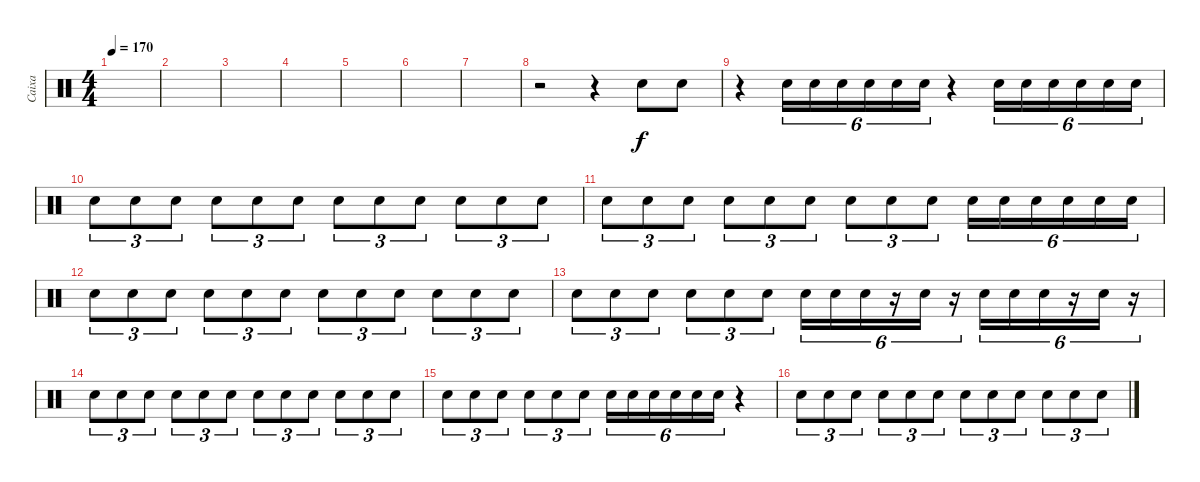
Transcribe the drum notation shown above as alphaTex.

\track ("Caixa" "Caixa") {instrument percussion}
\staff {score}
\articulation defaults
\ts (4 4)
\tempo 170
\clef neutral
\ks c
|
|
|
|
|
|
|
r.2 r.4 "Electric Snare (hit)".8 "Electric Snare (hit)".8 |
r.4 "Electric Snare (hit)".16{tu (6 4)} "Electric Snare (hit)".16{tu (6 4)} "Electric Snare (hit)".16{tu (6 4)} "Electric Snare (hit)".16{tu (6 4)} "Electric Snare (hit)".16{tu (6 4)} "Electric Snare (hit)".16{tu (6 4)} r.4 "Electric Snare (hit)".16{tu (6 4)} "Electric Snare (hit)".16{tu (6 4)} "Electric Snare (hit)".16{tu (6 4)} "Electric Snare (hit)".16{tu (6 4)} "Electric Snare (hit)".16{tu (6 4)} "Electric Snare (hit)".16{tu (6 4)} |
"Electric Snare (hit)".8{tu (3 2)} "Electric Snare (hit)".8{tu (3 2)} "Electric Snare (hit)".8{tu (3 2)} "Electric Snare (hit)".8{tu (3 2)} "Electric Snare (hit)".8{tu (3 2)} "Electric Snare (hit)".8{tu (3 2)} "Electric Snare (hit)".8{tu (3 2)} "Electric Snare (hit)".8{tu (3 2)} "Electric Snare (hit)".8{tu (3 2)} "Electric Snare (hit)".8{tu (3 2)} "Electric Snare (hit)".8{tu (3 2)} "Electric Snare (hit)".8{tu (3 2)} |
"Electric Snare (hit)".8{tu (3 2)} "Electric Snare (hit)".8{tu (3 2)} "Electric Snare (hit)".8{tu (3 2)} "Electric Snare (hit)".8{tu (3 2)} "Electric Snare (hit)".8{tu (3 2)} "Electric Snare (hit)".8{tu (3 2)} "Electric Snare (hit)".8{tu (3 2)} "Electric Snare (hit)".8{tu (3 2)} "Electric Snare (hit)".8{tu (3 2)} "Electric Snare (hit)".16{tu (6 4)} "Electric Snare (hit)".16{tu (6 4)} "Electric Snare (hit)".16{tu (6 4)} "Electric Snare (hit)".16{tu (6 4)} "Electric Snare (hit)".16{tu (6 4)} "Electric Snare (hit)".16{tu (6 4)} |
"Electric Snare (hit)".8{tu (3 2)} "Electric Snare (hit)".8{tu (3 2)} "Electric Snare (hit)".8{tu (3 2)} "Electric Snare (hit)".8{tu (3 2)} "Electric Snare (hit)".8{tu (3 2)} "Electric Snare (hit)".8{tu (3 2)} "Electric Snare (hit)".8{tu (3 2)} "Electric Snare (hit)".8{tu (3 2)} "Electric Snare (hit)".8{tu (3 2)} "Electric Snare (hit)".8{tu (3 2)} "Electric Snare (hit)".8{tu (3 2)} "Electric Snare (hit)".8{tu (3 2)} |
"Electric Snare (hit)".8{tu (3 2)} "Electric Snare (hit)".8{tu (3 2)} "Electric Snare (hit)".8{tu (3 2)} "Electric Snare (hit)".8{tu (3 2)} "Electric Snare (hit)".8{tu (3 2)} "Electric Snare (hit)".8{tu (3 2)} "Electric Snare (hit)".16{tu (6 4)} "Electric Snare (hit)".16{tu (6 4)} "Electric Snare (hit)".16{tu (6 4)} r.16{tu (6 4)} "Electric Snare (hit)".16{tu (6 4)} r.16{tu (6 4)} "Electric Snare (hit)".16{tu (6 4)} "Electric Snare (hit)".16{tu (6 4)} "Electric Snare (hit)".16{tu (6 4)} r.16{tu (6 4)} "Electric Snare (hit)".16{tu (6 4)} r.16{tu (6 4)} |
"Electric Snare (hit)".8{tu (3 2)} "Electric Snare (hit)".8{tu (3 2)} "Electric Snare (hit)".8{tu (3 2)} "Electric Snare (hit)".8{tu (3 2)} "Electric Snare (hit)".8{tu (3 2)} "Electric Snare (hit)".8{tu (3 2)} "Electric Snare (hit)".8{tu (3 2)} "Electric Snare (hit)".8{tu (3 2)} "Electric Snare (hit)".8{tu (3 2)} "Electric Snare (hit)".8{tu (3 2)} "Electric Snare (hit)".8{tu (3 2)} "Electric Snare (hit)".8{tu (3 2)} |
"Electric Snare (hit)".8{tu (3 2)} "Electric Snare (hit)".8{tu (3 2)} "Electric Snare (hit)".8{tu (3 2)} "Electric Snare (hit)".8{tu (3 2)} "Electric Snare (hit)".8{tu (3 2)} "Electric Snare (hit)".8{tu (3 2)} "Electric Snare (hit)".16{tu (6 4)} "Electric Snare (hit)".16{tu (6 4)} "Electric Snare (hit)".16{tu (6 4)} "Electric Snare (hit)".16{tu (6 4)} "Electric Snare (hit)".16{tu (6 4)} "Electric Snare (hit)".16{tu (6 4)} r.4 |
"Electric Snare (hit)".8{tu (3 2)} "Electric Snare (hit)".8{tu (3 2)} "Electric Snare (hit)".8{tu (3 2)} "Electric Snare (hit)".8{tu (3 2)} "Electric Snare (hit)".8{tu (3 2)} "Electric Snare (hit)".8{tu (3 2)} "Electric Snare (hit)".8{tu (3 2)} "Electric Snare (hit)".8{tu (3 2)} "Electric Snare (hit)".8{tu (3 2)} "Electric Snare (hit)".8{tu (3 2)} "Electric Snare (hit)".8{tu (3 2)} "Electric Snare (hit)".8{tu (3 2)}
